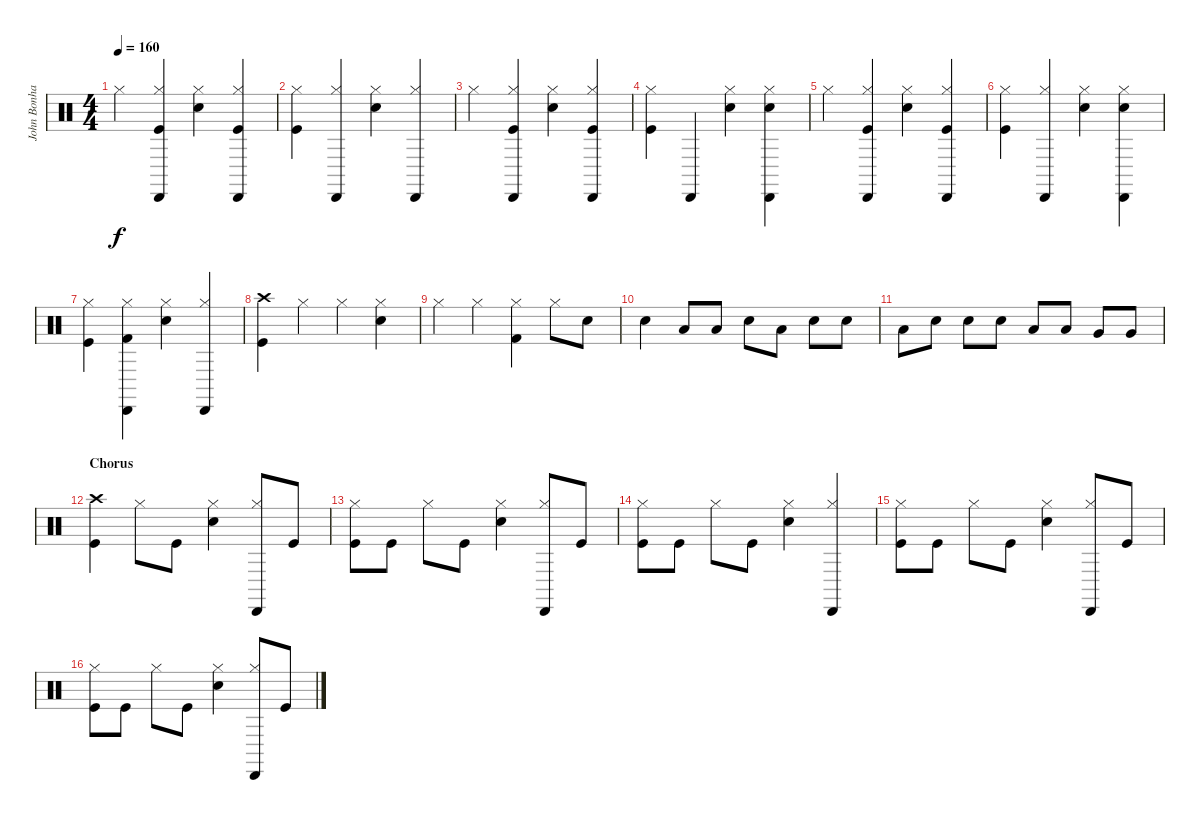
\track ("John Bonham - Drums" "John Bonha") {instrument percussion}
\staff {score}
\articulation defaults
\ts (4 4)
\tempo 160
\clef neutral
\ks c "Hi-Hat (closed)".4{dy f}
("Hi-Hat (closed)" "Kick (hit)" "Cabasa (hit)").4 ("Hi-Hat (closed)" "Snare (hit) 2").4 ("Hi-Hat (closed)" "Kick (hit)" "Cabasa (hit)").4 |
("Hi-Hat (closed)" "Kick (hit)").4 ("Hi-Hat (closed)" "Cabasa (hit)").4 ("Snare (hit) 2" "Hi-Hat (closed)").4 ("Cabasa (hit)" "Hi-Hat (closed)").4 |
"Hi-Hat (closed)".4 ("Kick (hit)" "Hi-Hat (closed)" "Cabasa (hit)").4 ("Snare (hit) 2" "Hi-Hat (closed)").4 ("Hi-Hat (closed)" "Kick (hit)" "Cabasa (hit)").4 |
("Kick (hit)" "Hi-Hat (closed)").4 "Cabasa (hit)".4 ("Snare (hit) 2" "Hi-Hat (closed)").4 ("Snare (hit) 2" "Hi-Hat (closed)" "Cabasa (hit)").4 |
"Hi-Hat (closed)".4 ("Hi-Hat (closed)" "Kick (hit)" "Cabasa (hit)").4 ("Snare (hit) 2" "Hi-Hat (closed)").4 ("Hi-Hat (closed)" "Kick (hit)" "Cabasa (hit)").4 |
("Kick (hit)" "Hi-Hat (closed)").4 ("Cabasa (hit)" "Hi-Hat (closed)").4 ("Snare (hit) 2" "Hi-Hat (closed)").4 ("Snare (hit) 2" "Hi-Hat (closed)" "Cabasa (hit)").4 |
("Kick (hit)" "Hi-Hat (closed)").4 ("Cabasa (hit)" "Hi-Hat (closed)" "Kick (hit) 2").4 ("Snare (hit) 2" "Hi-Hat (closed)").4 ("Hi-Hat (closed)" "Cabasa (hit)").4 |
("Kick (hit)" "Crash high (hit)").4 "Hi-Hat (closed)".4 "Hi-Hat (closed)".4 ("Snare (hit) 2" "Hi-Hat (closed)").4 |
"Hi-Hat (closed)".4 "Hi-Hat (closed)".4 ("Hi-Hat (closed)" "Kick (hit) 2").4 "Hi-Hat (closed)".8 "Snare (hit) 2".8 |
"Snare (hit) 2".4 "Low Tom (hit)".8 "Low Tom (hit)".8 "Snare (hit) 2".8 "Low Tom (hit)".8 "Snare (hit) 2".8 "Snare (hit) 2".8 |
"Low Tom (hit)".8 "Snare (hit) 2".8 "Snare (hit) 2".8 "Snare (hit) 2".8 "Low Tom (hit)".8 "Low Tom (hit)".8 "Very Low Tom (hit)".8 "Very Low Tom (hit)".8 |
\section ("" "Chorus")
("Kick (hit)" "Crash high (hit)").4 "Hi-Hat (closed)".8 "Kick (hit)".8 ("Snare (hit) 2" "Hi-Hat (closed)").4 ("Hi-Hat (closed)" "Cabasa (hit)").8 "Kick (hit)".8 |
("Hi-Hat (closed)" "Kick (hit)").8 "Kick (hit)".8 "Hi-Hat (closed)".8 "Kick (hit)".8 ("Snare (hit) 2" "Hi-Hat (closed)").4 ("Hi-Hat (closed)" "Cabasa (hit)").8 "Kick (hit)".8 |
("Hi-Hat (closed)" "Kick (hit)").8 "Kick (hit)".8 "Hi-Hat (closed)".8 "Kick (hit)".8 ("Hi-Hat (closed)" "Snare (hit) 2").4 ("Hi-Hat (closed)" "Cabasa (hit)").4 |
("Hi-Hat (closed)" "Kick (hit)").8 "Kick (hit)".8 "Hi-Hat (closed)".8 "Kick (hit)".8 ("Hi-Hat (closed)" "Snare (hit) 2").4 ("Hi-Hat (closed)" "Cabasa (hit)").8 "Kick (hit)".8 |
("Hi-Hat (closed)" "Kick (hit)").8 "Kick (hit)".8 "Hi-Hat (closed)".8 "Kick (hit)".8 ("Hi-Hat (closed)" "Snare (hit) 2").4 ("Hi-Hat (closed)" "Cabasa (hit)").8 "Kick (hit)".8
